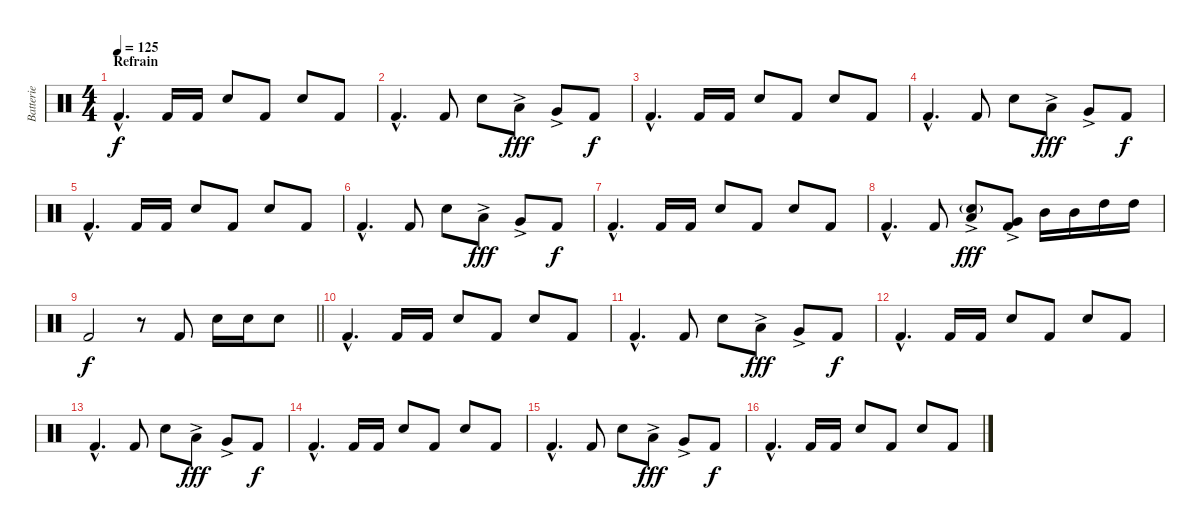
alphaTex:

\track ("Batterie" "Batterie") {instrument percussion}
\staff {score}
\articulation defaults
\ts (4 4)
\section ("" "Refrain")
\tempo 125
\clef neutral
\ks c "Kick (hit) 2"{hac}.4{d dy f} "Kick (hit) 2".16 "Kick (hit) 2".16 "Electric Snare (hit)".8 "Kick (hit) 2".8 "Electric Snare (hit)".8 "Kick (hit) 2".8
|
"Kick (hit) 2"{hac}.4{d} "Kick (hit) 2".8 "Electric Snare (hit)".8 "Low Floor Tom (hit)"{ac}.8{dy fff} "Very Low Tom (hit)"{ac}.8 "Kick (hit) 2".8{dy f} |
"Kick (hit) 2"{hac}.4{d} "Kick (hit) 2".16 "Kick (hit) 2".16 "Electric Snare (hit)".8 "Kick (hit) 2".8 "Electric Snare (hit)".8 "Kick (hit) 2".8 |
"Kick (hit) 2"{hac}.4{d} "Kick (hit) 2".8 "Electric Snare (hit)".8 "Low Floor Tom (hit)"{ac}.8{dy fff} "Very Low Tom (hit)"{ac}.8 "Kick (hit) 2".8{dy f} |
"Kick (hit) 2"{hac}.4{d} "Kick (hit) 2".16 "Kick (hit) 2".16 "Electric Snare (hit)".8 "Kick (hit) 2".8 "Electric Snare (hit)".8 "Kick (hit) 2".8 |
"Kick (hit) 2"{hac}.4{d} "Kick (hit) 2".8 "Electric Snare (hit)".8 "Low Floor Tom (hit)"{ac}.8{dy fff} "Very Low Tom (hit)"{ac}.8 "Kick (hit) 2".8{dy f} |
"Kick (hit) 2"{hac}.4{d} "Kick (hit) 2".16 "Kick (hit) 2".16 "Electric Snare (hit)".8 "Kick (hit) 2".8 "Electric Snare (hit)".8 "Kick (hit) 2".8 |
"Kick (hit) 2"{hac}.4{d} "Kick (hit) 2".8 ("Electric Snare (hit)"{g} "Low Floor Tom (hit)"{ac}).8{dy fff} ("Kick (hit) 2" "Very Low Tom (hit)"{ac}).8 "Mid Tom (hit)".16 "Mid Tom (hit)".16 "High Tom (hit)".16 "High Tom (hit)".16 |
\barLineRight lightlight "Kick (hit) 2".2{dy f}
r.8 "Kick (hit) 2".8 "Electric Snare (hit)".16 "Electric Snare (hit)".16 "Electric Snare (hit)".8 |
"Kick (hit) 2"{hac}.4{d} "Kick (hit) 2".16 "Kick (hit) 2".16 "Electric Snare (hit)".8 "Kick (hit) 2".8 "Electric Snare (hit)".8 "Kick (hit) 2".8 |
"Kick (hit) 2"{hac}.4{d} "Kick (hit) 2".8 "Electric Snare (hit)".8 "Low Floor Tom (hit)"{ac}.8{dy fff} "Very Low Tom (hit)"{ac}.8 "Kick (hit) 2".8{dy f} |
"Kick (hit) 2"{hac}.4{d} "Kick (hit) 2".16 "Kick (hit) 2".16 "Electric Snare (hit)".8 "Kick (hit) 2".8 "Electric Snare (hit)".8 "Kick (hit) 2".8 |
"Kick (hit) 2"{hac}.4{d} "Kick (hit) 2".8 "Electric Snare (hit)".8 "Low Floor Tom (hit)"{ac}.8{dy fff} "Very Low Tom (hit)"{ac}.8 "Kick (hit) 2".8{dy f} |
"Kick (hit) 2"{hac}.4{d} "Kick (hit) 2".16 "Kick (hit) 2".16 "Electric Snare (hit)".8 "Kick (hit) 2".8 "Electric Snare (hit)".8 "Kick (hit) 2".8 |
"Kick (hit) 2"{hac}.4{d} "Kick (hit) 2".8 "Electric Snare (hit)".8 "Low Floor Tom (hit)"{ac}.8{dy fff} "Very Low Tom (hit)"{ac}.8 "Kick (hit) 2".8{dy f} |
"Kick (hit) 2"{hac}.4{d} "Kick (hit) 2".16 "Kick (hit) 2".16 "Electric Snare (hit)".8 "Kick (hit) 2".8 "Electric Snare (hit)".8 "Kick (hit) 2".8
